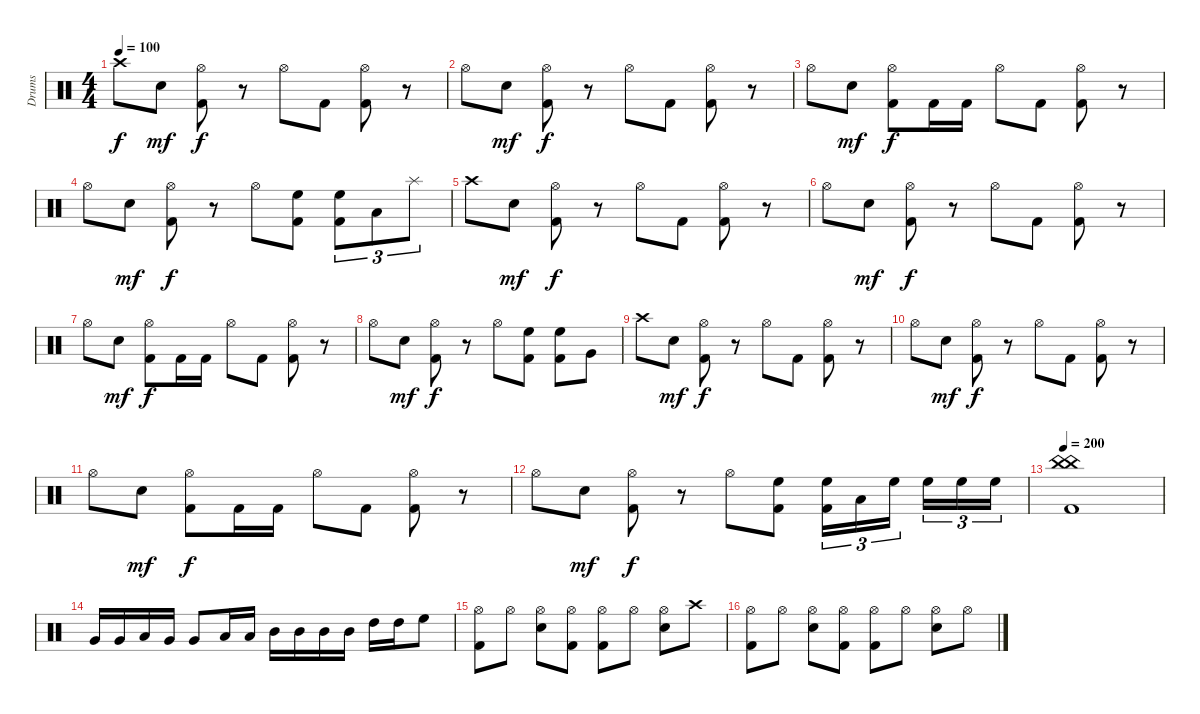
\track ("Drums" "Drums") {instrument percussion}
\staff {score}
\articulation defaults
\ts (4 4)
\tempo 100
\clef neutral
\ks c "Crash high (hit)".8{dy f} "Electric Snare (hit)".8{dy mf}
("Hi-Hat (open)" "Kick (hit) 2").8{dy f} r.8 "Hi-Hat (open)".8 "Kick (hit) 2".8 ("Hi-Hat (open)" "Kick (hit) 2").8 r.8 |
"Hi-Hat (open)".8 "Electric Snare (hit)".8{dy mf} ("Hi-Hat (open)" "Kick (hit) 2").8{dy f} r.8 "Hi-Hat (open)".8 "Kick (hit) 2".8 ("Hi-Hat (open)" "Kick (hit) 2").8 r.8 |
"Hi-Hat (open)".8 "Electric Snare (hit)".8{dy mf} ("Hi-Hat (open)" "Kick (hit) 2").8{dy f} "Kick (hit) 2".16 "Kick (hit) 2".16 "Hi-Hat (open)".8 "Kick (hit) 2".8 ("Hi-Hat (open)" "Kick (hit) 2").8 r.8 |
"Hi-Hat (open)".8 "Electric Snare (hit)".8{dy mf} ("Hi-Hat (open)" "Kick (hit) 2").8{dy f} r.8 "Hi-Hat (open)".8 ("High Floor Tom (hit)" "Kick (hit) 2").8 ("High Floor Tom (hit)" "Kick (hit) 2").8{tu (3 2)} "Low Tom (hit)".8{tu (3 2)} "Splash (hit)".8{tu (3 2)} |
"Crash high (hit)".8 "Electric Snare (hit)".8{dy mf} ("Hi-Hat (open)" "Kick (hit) 2").8{dy f} r.8 "Hi-Hat (open)".8 "Kick (hit) 2".8 ("Hi-Hat (open)" "Kick (hit) 2").8 r.8 |
"Hi-Hat (open)".8 "Electric Snare (hit)".8{dy mf} ("Hi-Hat (open)" "Kick (hit) 2").8{dy f} r.8 "Hi-Hat (open)".8 "Kick (hit) 2".8 ("Hi-Hat (open)" "Kick (hit) 2").8 r.8 |
"Hi-Hat (open)".8 "Electric Snare (hit)".8{dy mf} ("Hi-Hat (open)" "Kick (hit) 2").8{dy f} "Kick (hit) 2".16 "Kick (hit) 2".16 "Hi-Hat (open)".8 "Kick (hit) 2".8 ("Hi-Hat (open)" "Kick (hit) 2").8 r.8 |
"Hi-Hat (open)".8 "Electric Snare (hit)".8{dy mf} ("Hi-Hat (open)" "Kick (hit) 2").8{dy f} r.8 "Hi-Hat (open)".8 ("High Floor Tom (hit)" "Kick (hit) 2").8 ("High Floor Tom (hit)" "Kick (hit) 2").8 "Very Low Tom (hit)".8 |
"Crash high (hit)".8 "Electric Snare (hit)".8{dy mf} ("Hi-Hat (open)" "Kick (hit) 2").8{dy f} r.8 "Hi-Hat (open)".8 "Kick (hit) 2".8 ("Hi-Hat (open)" "Kick (hit) 2").8 r.8 |
"Hi-Hat (open)".8 "Electric Snare (hit)".8{dy mf} ("Hi-Hat (open)" "Kick (hit) 2").8{dy f} r.8 "Hi-Hat (open)".8 "Kick (hit) 2".8 ("Hi-Hat (open)" "Kick (hit) 2").8 r.8 |
"Hi-Hat (open)".8 "Electric Snare (hit)".8{dy mf} ("Hi-Hat (open)" "Kick (hit) 2").8{dy f} "Kick (hit) 2".16 "Kick (hit) 2".16 "Hi-Hat (open)".8 "Kick (hit) 2".8 ("Hi-Hat (open)" "Kick (hit) 2").8 r.8 |
"Hi-Hat (open)".8 "Electric Snare (hit)".8{dy mf} ("Hi-Hat (open)" "Kick (hit) 2").8{dy f} r.8 "Hi-Hat (open)".8 ("High Floor Tom (hit)" "Kick (hit) 2").8 ("High Floor Tom (hit)" "Kick (hit) 2").16{tu (3 2)} "Low Tom (hit)".16{tu (3 2)} "High Floor Tom (hit)".16{tu (3 2)} "High Floor Tom (hit)".16{tu (3 2)} "High Floor Tom (hit)".16{tu (3 2)} "High Floor Tom (hit)".16{tu (3 2)} |
\tempo 200
("China (hit)" "China (hit)" "Kick (hit) 2").1 |
"Very Low Tom (hit)".16 "Very Low Tom (hit)".16 "Low Floor Tom (hit)".16 "Very Low Tom (hit)".16 "Very Low Tom (hit)".8 "Low Tom (hit)".16 "Low Tom (hit)".16 "Mid Tom (hit)".16 "Mid Tom (hit)".16 "Mid Tom (hit)".16 "Mid Tom (hit)".16 "High Tom (hit)".16 "High Tom (hit)".16 "High Floor Tom (hit)".8 |
("Hi-Hat (open)" "Kick (hit) 2").8 "Hi-Hat (open)".8 ("Hi-Hat (open)" "Electric Snare (hit)").8 ("Hi-Hat (open)" "Kick (hit) 2").8 ("Hi-Hat (open)" "Kick (hit) 2").8 "Hi-Hat (open)".8 ("Hi-Hat (open)" "Electric Snare (hit)").8 "Crash high (hit)".8 |
("Hi-Hat (open)" "Kick (hit) 2").8 "Hi-Hat (open)".8 ("Hi-Hat (open)" "Electric Snare (hit)").8 ("Hi-Hat (open)" "Kick (hit) 2").8 ("Hi-Hat (open)" "Kick (hit) 2").8 "Hi-Hat (open)".8 ("Hi-Hat (open)" "Electric Snare (hit)").8 "Hi-Hat (open)".8
